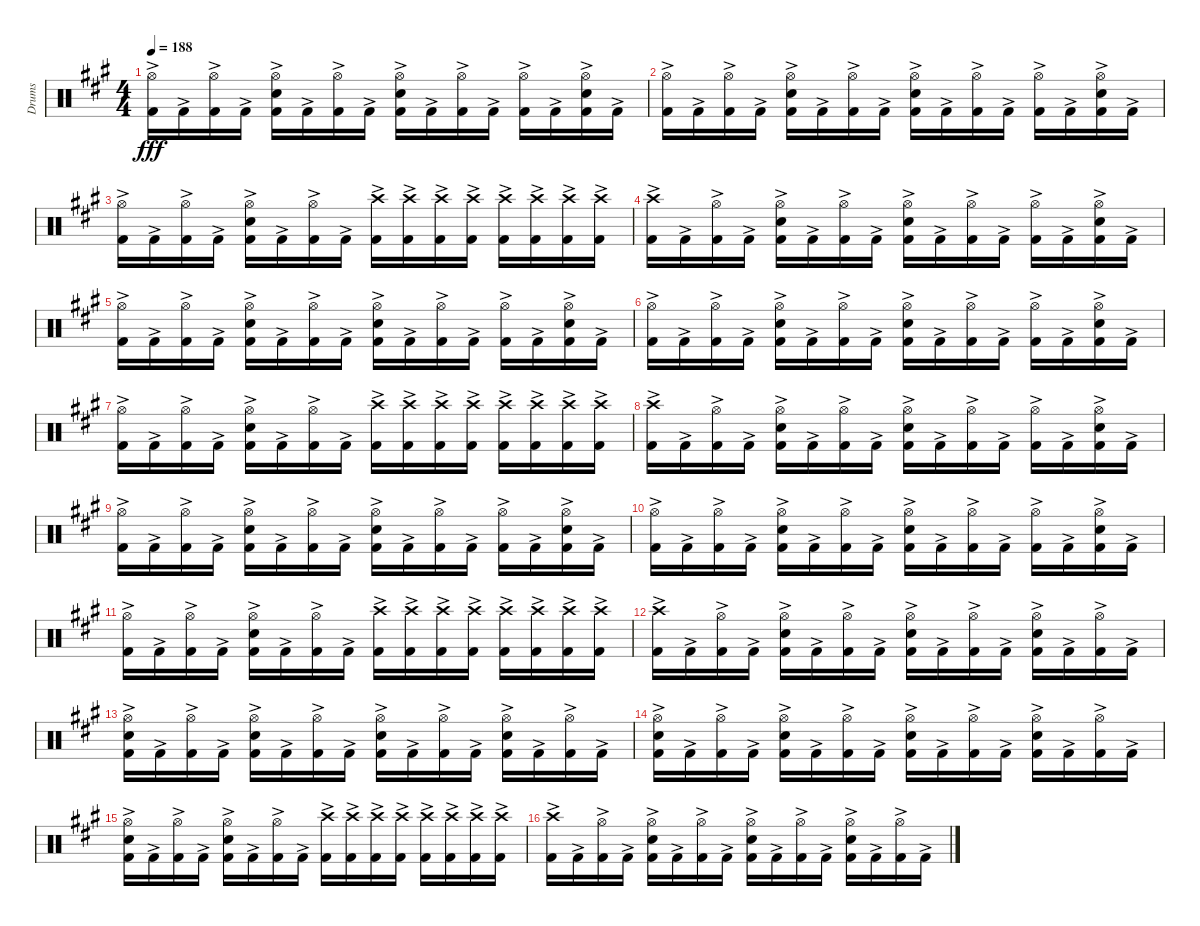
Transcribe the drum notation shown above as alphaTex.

\track ("Drums" "Drums") {instrument percussion}
\staff {score}
\articulation defaults
\ts (4 4)
\tempo 188
\clef neutral
\ks f#minor
("Hi-Hat (open)" "Kick (hit) 2"{ac}).16{dy fff} "Kick (hit) 2"{ac}.16 ("Hi-Hat (open)" "Kick (hit) 2"{ac}).16 "Kick (hit) 2"{ac}.16 ("Hi-Hat (open)" "Snare (hit) 2" "Kick (hit) 2"{ac}).16 "Kick (hit) 2"{ac}.16 ("Hi-Hat (open)" "Kick (hit) 2"{ac}).16 "Kick (hit) 2"{ac}.16 ("Hi-Hat (open)" "Snare (hit) 2" "Kick (hit) 2"{ac}).16 "Kick (hit) 2"{ac}.16 ("Hi-Hat (open)" "Kick (hit) 2"{ac}).16 "Kick (hit) 2"{ac}.16 ("Hi-Hat (open)" "Kick (hit) 2"{ac}).16 "Kick (hit) 2"{ac}.16 ("Hi-Hat (open)" "Snare (hit) 2" "Kick (hit) 2"{ac}).16 "Kick (hit) 2"{ac}.16 |
("Hi-Hat (open)" "Kick (hit) 2"{ac}).16 "Kick (hit) 2"{ac}.16 ("Hi-Hat (open)" "Kick (hit) 2"{ac}).16 "Kick (hit) 2"{ac}.16 ("Hi-Hat (open)" "Snare (hit) 2" "Kick (hit) 2"{ac}).16 "Kick (hit) 2"{ac}.16 ("Hi-Hat (open)" "Kick (hit) 2"{ac}).16 "Kick (hit) 2"{ac}.16 ("Hi-Hat (open)" "Snare (hit) 2" "Kick (hit) 2"{ac}).16 "Kick (hit) 2"{ac}.16 ("Hi-Hat (open)" "Kick (hit) 2"{ac}).16 "Kick (hit) 2"{ac}.16 ("Hi-Hat (open)" "Kick (hit) 2"{ac}).16 "Kick (hit) 2"{ac}.16 ("Hi-Hat (open)" "Snare (hit) 2" "Kick (hit) 2"{ac}).16 "Kick (hit) 2"{ac}.16 |
("Hi-Hat (open)" "Kick (hit) 2"{ac}).16 "Kick (hit) 2"{ac}.16 ("Hi-Hat (open)" "Kick (hit) 2"{ac}).16 "Kick (hit) 2"{ac}.16 ("Hi-Hat (open)" "Snare (hit) 2" "Kick (hit) 2"{ac}).16 "Kick (hit) 2"{ac}.16 ("Hi-Hat (open)" "Kick (hit) 2"{ac}).16 "Kick (hit) 2"{ac}.16 ("Crash high (hit)" "Kick (hit) 2"{ac}).16 ("Crash high (hit)" "Kick (hit) 2"{ac}).16 ("Crash high (hit)" "Kick (hit) 2"{ac}).16 ("Crash high (hit)" "Kick (hit) 2"{ac}).16 ("Crash high (hit)" "Kick (hit) 2"{ac}).16 ("Crash high (hit)" "Kick (hit) 2"{ac}).16 ("Crash high (hit)" "Kick (hit) 2"{ac}).16 ("Crash high (hit)" "Kick (hit) 2"{ac}).16 |
("Crash high (hit)" "Kick (hit) 2"{ac}).16 "Kick (hit) 2"{ac}.16 ("Hi-Hat (open)" "Kick (hit) 2"{ac}).16 "Kick (hit) 2"{ac}.16 ("Hi-Hat (open)" "Snare (hit) 2" "Kick (hit) 2"{ac}).16 "Kick (hit) 2"{ac}.16 ("Hi-Hat (open)" "Kick (hit) 2"{ac}).16 "Kick (hit) 2"{ac}.16 ("Hi-Hat (open)" "Snare (hit) 2" "Kick (hit) 2"{ac}).16 "Kick (hit) 2"{ac}.16 ("Hi-Hat (open)" "Kick (hit) 2"{ac}).16 "Kick (hit) 2"{ac}.16 ("Hi-Hat (open)" "Kick (hit) 2"{ac}).16 "Kick (hit) 2"{ac}.16 ("Hi-Hat (open)" "Snare (hit) 2" "Kick (hit) 2"{ac}).16 "Kick (hit) 2"{ac}.16 |
("Hi-Hat (open)" "Kick (hit) 2"{ac}).16 "Kick (hit) 2"{ac}.16 ("Hi-Hat (open)" "Kick (hit) 2"{ac}).16 "Kick (hit) 2"{ac}.16 ("Hi-Hat (open)" "Snare (hit) 2" "Kick (hit) 2"{ac}).16 "Kick (hit) 2"{ac}.16 ("Hi-Hat (open)" "Kick (hit) 2"{ac}).16 "Kick (hit) 2"{ac}.16 ("Hi-Hat (open)" "Snare (hit) 2" "Kick (hit) 2"{ac}).16 "Kick (hit) 2"{ac}.16 ("Hi-Hat (open)" "Kick (hit) 2"{ac}).16 "Kick (hit) 2"{ac}.16 ("Hi-Hat (open)" "Kick (hit) 2"{ac}).16 "Kick (hit) 2"{ac}.16 ("Hi-Hat (open)" "Snare (hit) 2" "Kick (hit) 2"{ac}).16 "Kick (hit) 2"{ac}.16 |
("Hi-Hat (open)" "Kick (hit) 2"{ac}).16 "Kick (hit) 2"{ac}.16 ("Hi-Hat (open)" "Kick (hit) 2"{ac}).16 "Kick (hit) 2"{ac}.16 ("Hi-Hat (open)" "Snare (hit) 2" "Kick (hit) 2"{ac}).16 "Kick (hit) 2"{ac}.16 ("Hi-Hat (open)" "Kick (hit) 2"{ac}).16 "Kick (hit) 2"{ac}.16 ("Hi-Hat (open)" "Snare (hit) 2" "Kick (hit) 2"{ac}).16 "Kick (hit) 2"{ac}.16 ("Hi-Hat (open)" "Kick (hit) 2"{ac}).16 "Kick (hit) 2"{ac}.16 ("Hi-Hat (open)" "Kick (hit) 2"{ac}).16 "Kick (hit) 2"{ac}.16 ("Hi-Hat (open)" "Snare (hit) 2" "Kick (hit) 2"{ac}).16 "Kick (hit) 2"{ac}.16 |
("Hi-Hat (open)" "Kick (hit) 2"{ac}).16 "Kick (hit) 2"{ac}.16 ("Hi-Hat (open)" "Kick (hit) 2"{ac}).16 "Kick (hit) 2"{ac}.16 ("Hi-Hat (open)" "Snare (hit) 2" "Kick (hit) 2"{ac}).16 "Kick (hit) 2"{ac}.16 ("Hi-Hat (open)" "Kick (hit) 2"{ac}).16 "Kick (hit) 2"{ac}.16 ("Crash high (hit)" "Kick (hit) 2"{ac}).16 ("Crash high (hit)" "Kick (hit) 2"{ac}).16 ("Crash high (hit)" "Kick (hit) 2"{ac}).16 ("Crash high (hit)" "Kick (hit) 2"{ac}).16 ("Crash high (hit)" "Kick (hit) 2"{ac}).16 ("Crash high (hit)" "Kick (hit) 2"{ac}).16 ("Crash high (hit)" "Kick (hit) 2"{ac}).16 ("Crash high (hit)" "Kick (hit) 2"{ac}).16 |
("Crash high (hit)" "Kick (hit) 2"{ac}).16 "Kick (hit) 2"{ac}.16 ("Hi-Hat (open)" "Kick (hit) 2"{ac}).16 "Kick (hit) 2"{ac}.16 ("Hi-Hat (open)" "Snare (hit) 2" "Kick (hit) 2"{ac}).16 "Kick (hit) 2"{ac}.16 ("Hi-Hat (open)" "Kick (hit) 2"{ac}).16 "Kick (hit) 2"{ac}.16 ("Hi-Hat (open)" "Snare (hit) 2" "Kick (hit) 2"{ac}).16 "Kick (hit) 2"{ac}.16 ("Hi-Hat (open)" "Kick (hit) 2"{ac}).16 "Kick (hit) 2"{ac}.16 ("Hi-Hat (open)" "Kick (hit) 2"{ac}).16 "Kick (hit) 2"{ac}.16 ("Hi-Hat (open)" "Snare (hit) 2" "Kick (hit) 2"{ac}).16 "Kick (hit) 2"{ac}.16 |
("Hi-Hat (open)" "Kick (hit) 2"{ac}).16 "Kick (hit) 2"{ac}.16 ("Hi-Hat (open)" "Kick (hit) 2"{ac}).16 "Kick (hit) 2"{ac}.16 ("Hi-Hat (open)" "Snare (hit) 2" "Kick (hit) 2"{ac}).16 "Kick (hit) 2"{ac}.16 ("Hi-Hat (open)" "Kick (hit) 2"{ac}).16 "Kick (hit) 2"{ac}.16 ("Hi-Hat (open)" "Snare (hit) 2" "Kick (hit) 2"{ac}).16 "Kick (hit) 2"{ac}.16 ("Hi-Hat (open)" "Kick (hit) 2"{ac}).16 "Kick (hit) 2"{ac}.16 ("Hi-Hat (open)" "Kick (hit) 2"{ac}).16 "Kick (hit) 2"{ac}.16 ("Hi-Hat (open)" "Snare (hit) 2" "Kick (hit) 2"{ac}).16 "Kick (hit) 2"{ac}.16 |
("Hi-Hat (open)" "Kick (hit) 2"{ac}).16 "Kick (hit) 2"{ac}.16 ("Hi-Hat (open)" "Kick (hit) 2"{ac}).16 "Kick (hit) 2"{ac}.16 ("Hi-Hat (open)" "Snare (hit) 2" "Kick (hit) 2"{ac}).16 "Kick (hit) 2"{ac}.16 ("Hi-Hat (open)" "Kick (hit) 2"{ac}).16 "Kick (hit) 2"{ac}.16 ("Hi-Hat (open)" "Snare (hit) 2" "Kick (hit) 2"{ac}).16 "Kick (hit) 2"{ac}.16 ("Hi-Hat (open)" "Kick (hit) 2"{ac}).16 "Kick (hit) 2"{ac}.16 ("Hi-Hat (open)" "Kick (hit) 2"{ac}).16 "Kick (hit) 2"{ac}.16 ("Hi-Hat (open)" "Snare (hit) 2" "Kick (hit) 2"{ac}).16 "Kick (hit) 2"{ac}.16 |
("Hi-Hat (open)" "Kick (hit) 2"{ac}).16 "Kick (hit) 2"{ac}.16 ("Hi-Hat (open)" "Kick (hit) 2"{ac}).16 "Kick (hit) 2"{ac}.16 ("Hi-Hat (open)" "Snare (hit) 2" "Kick (hit) 2"{ac}).16 "Kick (hit) 2"{ac}.16 ("Hi-Hat (open)" "Kick (hit) 2"{ac}).16 "Kick (hit) 2"{ac}.16 ("Crash high (hit)" "Kick (hit) 2"{ac}).16 ("Crash high (hit)" "Kick (hit) 2"{ac}).16 ("Crash high (hit)" "Kick (hit) 2"{ac}).16 ("Crash high (hit)" "Kick (hit) 2"{ac}).16 ("Crash high (hit)" "Kick (hit) 2"{ac}).16 ("Crash high (hit)" "Kick (hit) 2"{ac}).16 ("Crash high (hit)" "Kick (hit) 2"{ac}).16 ("Crash high (hit)" "Kick (hit) 2"{ac}).16 |
("Crash high (hit)" "Kick (hit) 2"{ac}).16 "Kick (hit) 2"{ac}.16 ("Hi-Hat (open)" "Kick (hit) 2"{ac}).16 "Kick (hit) 2"{ac}.16 ("Hi-Hat (open)" "Snare (hit) 2" "Kick (hit) 2"{ac}).16 "Kick (hit) 2"{ac}.16 ("Hi-Hat (open)" "Kick (hit) 2"{ac}).16 "Kick (hit) 2"{ac}.16 ("Hi-Hat (open)" "Snare (hit) 2" "Kick (hit) 2"{ac}).16 "Kick (hit) 2"{ac}.16 ("Hi-Hat (open)" "Kick (hit) 2"{ac}).16 "Kick (hit) 2"{ac}.16 ("Hi-Hat (open)" "Snare (hit) 2" "Kick (hit) 2"{ac}).16 "Kick (hit) 2"{ac}.16 ("Hi-Hat (open)" "Kick (hit) 2"{ac}).16 "Kick (hit) 2"{ac}.16 |
("Hi-Hat (open)" "Snare (hit) 2" "Kick (hit) 2"{ac}).16 "Kick (hit) 2"{ac}.16 ("Hi-Hat (open)" "Kick (hit) 2"{ac}).16 "Kick (hit) 2"{ac}.16 ("Hi-Hat (open)" "Snare (hit) 2" "Kick (hit) 2"{ac}).16 "Kick (hit) 2"{ac}.16 ("Hi-Hat (open)" "Kick (hit) 2"{ac}).16 "Kick (hit) 2"{ac}.16 ("Hi-Hat (open)" "Snare (hit) 2" "Kick (hit) 2"{ac}).16 "Kick (hit) 2"{ac}.16 ("Hi-Hat (open)" "Kick (hit) 2"{ac}).16 "Kick (hit) 2"{ac}.16 ("Hi-Hat (open)" "Snare (hit) 2" "Kick (hit) 2"{ac}).16 "Kick (hit) 2"{ac}.16 ("Hi-Hat (open)" "Kick (hit) 2"{ac}).16 "Kick (hit) 2"{ac}.16 |
("Hi-Hat (open)" "Snare (hit) 2" "Kick (hit) 2"{ac}).16 "Kick (hit) 2"{ac}.16 ("Hi-Hat (open)" "Kick (hit) 2"{ac}).16 "Kick (hit) 2"{ac}.16 ("Hi-Hat (open)" "Snare (hit) 2" "Kick (hit) 2"{ac}).16 "Kick (hit) 2"{ac}.16 ("Hi-Hat (open)" "Kick (hit) 2"{ac}).16 "Kick (hit) 2"{ac}.16 ("Hi-Hat (open)" "Snare (hit) 2" "Kick (hit) 2"{ac}).16 "Kick (hit) 2"{ac}.16 ("Hi-Hat (open)" "Kick (hit) 2"{ac}).16 "Kick (hit) 2"{ac}.16 ("Hi-Hat (open)" "Snare (hit) 2" "Kick (hit) 2"{ac}).16 "Kick (hit) 2"{ac}.16 ("Hi-Hat (open)" "Kick (hit) 2"{ac}).16 "Kick (hit) 2"{ac}.16 |
("Hi-Hat (open)" "Snare (hit) 2" "Kick (hit) 2"{ac}).16 "Kick (hit) 2"{ac}.16 ("Hi-Hat (open)" "Kick (hit) 2"{ac}).16 "Kick (hit) 2"{ac}.16 ("Hi-Hat (open)" "Snare (hit) 2" "Kick (hit) 2"{ac}).16 "Kick (hit) 2"{ac}.16 ("Hi-Hat (open)" "Kick (hit) 2"{ac}).16 "Kick (hit) 2"{ac}.16 ("Crash high (hit)" "Kick (hit) 2"{ac}).16 ("Crash high (hit)" "Kick (hit) 2"{ac}).16 ("Crash high (hit)" "Kick (hit) 2"{ac}).16 ("Crash high (hit)" "Kick (hit) 2"{ac}).16 ("Crash high (hit)" "Kick (hit) 2"{ac}).16 ("Crash high (hit)" "Kick (hit) 2"{ac}).16 ("Crash high (hit)" "Kick (hit) 2"{ac}).16 ("Crash high (hit)" "Kick (hit) 2"{ac}).16 |
("Crash high (hit)" "Kick (hit) 2"{ac}).16 "Kick (hit) 2"{ac}.16 ("Hi-Hat (open)" "Kick (hit) 2"{ac}).16 "Kick (hit) 2"{ac}.16 ("Hi-Hat (open)" "Snare (hit) 2" "Kick (hit) 2"{ac}).16 "Kick (hit) 2"{ac}.16 ("Hi-Hat (open)" "Kick (hit) 2"{ac}).16 "Kick (hit) 2"{ac}.16 ("Hi-Hat (open)" "Snare (hit) 2" "Kick (hit) 2"{ac}).16 "Kick (hit) 2"{ac}.16 ("Hi-Hat (open)" "Kick (hit) 2"{ac}).16 "Kick (hit) 2"{ac}.16 ("Hi-Hat (open)" "Snare (hit) 2" "Kick (hit) 2"{ac}).16 "Kick (hit) 2"{ac}.16 ("Hi-Hat (open)" "Kick (hit) 2"{ac}).16 "Kick (hit) 2"{ac}.16
